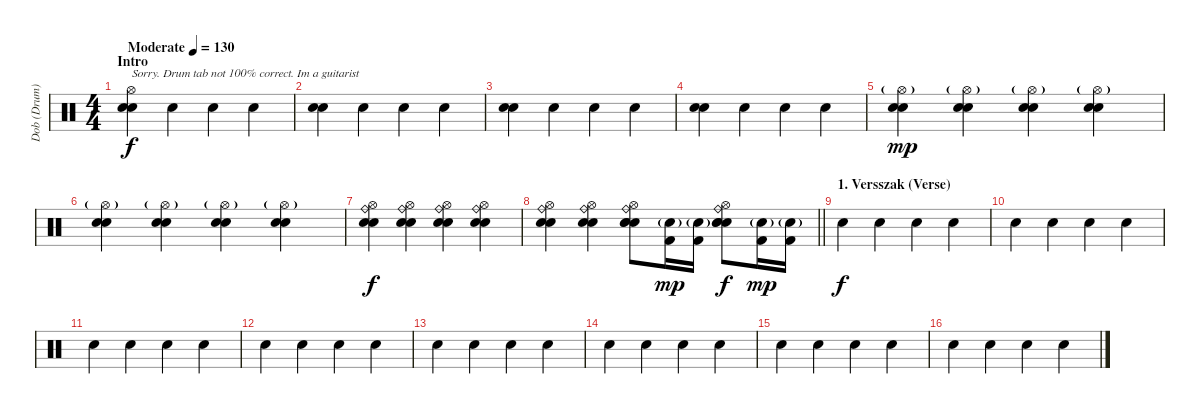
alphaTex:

\track ("Dob (Drum)" "Dob (Drum)") {instrument percussion}
\staff {score}
\articulation defaults
\ts (4 4)
\section ("" "Intro")
\tempo (130 "Moderate")
\clef neutral
\ks c
("Hi-Hat (open)" "Electric Snare (hit)" "Snare (hit) 2").4{txt "Sorry. Drum tab not 100% correct. Im a guitarist" dy f} "Snare (hit) 2".4 "Snare (hit) 2".4 "Snare (hit) 2".4 |
("Electric Snare (hit)" "Snare (hit) 2").4 "Snare (hit) 2".4 "Snare (hit) 2".4 "Snare (hit) 2".4 |
("Electric Snare (hit)" "Snare (hit) 2").4 "Snare (hit) 2".4 "Snare (hit) 2".4 "Snare (hit) 2".4 |
("Electric Snare (hit)" "Snare (hit) 2").4 "Snare (hit) 2".4 "Snare (hit) 2".4 "Snare (hit) 2".4 |
("Hi-Hat (open)"{g} "Hand Clap (hit)" "Snare (hit) 2").4{dy mp} ("Hi-Hat (open)"{g} "Hand Clap (hit)" "Snare (hit) 2").4 ("Hi-Hat (open)"{g} "Hand Clap (hit)" "Snare (hit) 2").4 ("Hi-Hat (open)"{g} "Hand Clap (hit)" "Snare (hit) 2").4 |
("Hi-Hat (open)"{g} "Hand Clap (hit)" "Snare (hit) 2").4 ("Hi-Hat (open)"{g} "Hand Clap (hit)" "Snare (hit) 2").4 ("Hi-Hat (open)"{g} "Hand Clap (hit)" "Snare (hit) 2").4 ("Hi-Hat (open)"{g} "Hand Clap (hit)" "Snare (hit) 2").4 |
("Ride (bell)" "Hi-Hat (open)" "Hand Clap (hit)" "Snare (hit) 2").4{dy f} ("Ride (bell)" "Hi-Hat (open)" "Hand Clap (hit)" "Snare (hit) 2").4 ("Ride (bell)" "Hi-Hat (open)" "Hand Clap (hit)" "Snare (hit) 2").4 ("Ride (bell)" "Hi-Hat (open)" "Hand Clap (hit)" "Snare (hit) 2").4 |
\barLineRight lightlight
("Ride (bell)" "Hi-Hat (open)" "Hand Clap (hit)" "Snare (hit) 2").4 ("Ride (bell)" "Hi-Hat (open)" "Hand Clap (hit)" "Snare (hit) 2").4 ("Ride (bell)" "Hi-Hat (open)" "Hand Clap (hit)" "Electric Snare (hit)" "Snare (hit) 2").8 ("Electric Snare (hit)"{g} "Kick (hit) 2").16{dy mp} ("Electric Snare (hit)"{g} "Kick (hit) 2").16 ("Ride (bell)" "Hi-Hat (open)" "Hand Clap (hit)" "Electric Snare (hit)" "Snare (hit) 2").8{dy f} ("Electric Snare (hit)"{g} "Kick (hit) 2").16{dy mp} ("Electric Snare (hit)"{g} "Kick (hit) 2").16 |
\section ("" "1. Versszak (Verse)")
"Snare (hit) 2".4{dy f} "Electric Snare (hit)".4 "Snare (hit) 2".4 "Electric Snare (hit)".4 |
"Snare (hit) 2".4 "Electric Snare (hit)".4 "Snare (hit) 2".4 "Electric Snare (hit)".4 |
"Snare (hit) 2".4 "Electric Snare (hit)".4 "Snare (hit) 2".4 "Electric Snare (hit)".4 |
"Snare (hit) 2".4 "Electric Snare (hit)".4 "Snare (hit) 2".4 "Electric Snare (hit)".4 |
"Snare (hit) 2".4 "Electric Snare (hit)".4 "Snare (hit) 2".4 "Electric Snare (hit)".4 |
"Snare (hit) 2".4 "Electric Snare (hit)".4 "Snare (hit) 2".4 "Electric Snare (hit)".4 |
"Snare (hit) 2".4 "Electric Snare (hit)".4 "Snare (hit) 2".4 "Electric Snare (hit)".4 |
"Snare (hit) 2".4 "Electric Snare (hit)".4 "Snare (hit) 2".4 "Electric Snare (hit)".4
